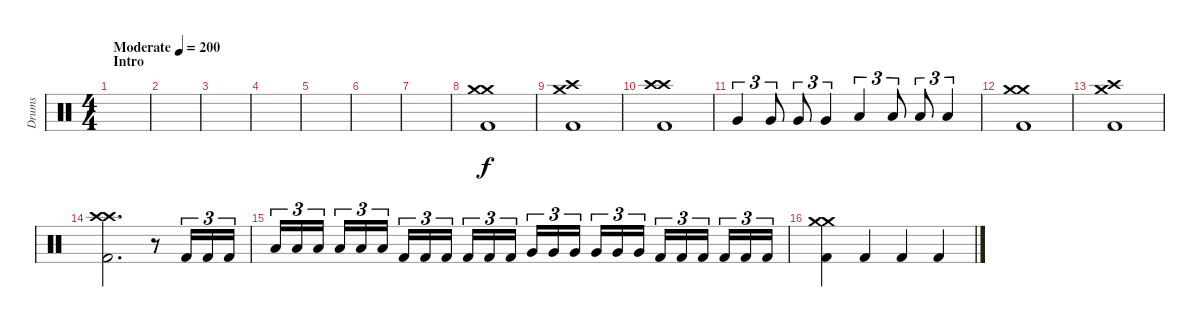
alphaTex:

\track ("Drums" "Drums") {instrument percussion}
\staff {score}
\articulation defaults
\ts (4 4)
\section ("" "Intro")
\tempo (200 "Moderate")
\clef neutral
\ks c
|
|
|
|
|
|
|
("Crash medium (hit)" "Crash medium (hit)" "Kick (hit) 2").1 |
("Crash high (hit)" "Crash medium (hit)" "Kick (hit) 2").1 |
("Crash high (hit)" "Crash high (hit)" "Kick (hit) 2").1 |
"Very Low Tom (hit)".4{tu (3 2)} "Very Low Tom (hit)".8{tu (3 2)} "Very Low Tom (hit)".8{tu (3 2)} "Very Low Tom (hit)".4{tu (3 2)} "Low Floor Tom (hit)".4{tu (3 2)} "Low Floor Tom (hit)".8{tu (3 2)} "Low Floor Tom (hit)".8{tu (3 2)} "Low Floor Tom (hit)".4{tu (3 2)} |
("Crash medium (hit)" "Crash medium (hit)" "Kick (hit) 2").1 |
("Crash high (hit)" "Crash medium (hit)" "Kick (hit) 2").1 |
("Crash high (hit)" "Crash high (hit)" "Kick (hit) 2").2{d} r.8 "Kick (hit) 2".16{tu (3 2)} "Kick (hit) 2".16{tu (3 2)} "Kick (hit) 2".16{tu (3 2)} |
"Low Tom (hit)".16{tu (3 2)} "Low Tom (hit)".16{tu (3 2)} "Low Tom (hit)".16{tu (3 2) beam splitsecondary} "Low Tom (hit)".16{tu (3 2)} "Low Tom (hit)".16{tu (3 2)} "Low Tom (hit)".16{tu (3 2)} "Kick (hit) 2".16{tu (3 2)} "Kick (hit) 2".16{tu (3 2)} "Kick (hit) 2".16{tu (3 2) beam splitsecondary} "Kick (hit) 2".16{tu (3 2)} "Kick (hit) 2".16{tu (3 2)} "Kick (hit) 2".16{tu (3 2)} "Very Low Tom (hit)".16{tu (3 2)} "Very Low Tom (hit)".16{tu (3 2)} "Very Low Tom (hit)".16{tu (3 2) beam splitsecondary} "Very Low Tom (hit)".16{tu (3 2)} "Very Low Tom (hit)".16{tu (3 2)} "Very Low Tom (hit)".16{tu (3 2)} "Kick (hit) 2".16{tu (3 2)} "Kick (hit) 2".16{tu (3 2)} "Kick (hit) 2".16{tu (3 2) beam splitsecondary} "Kick (hit) 2".16{tu (3 2)} "Kick (hit) 2".16{tu (3 2)} "Kick (hit) 2".16{tu (3 2)} |
("Crash medium (hit)" "Crash medium (hit)" "Kick (hit) 2").4 "Kick (hit) 2".4 "Kick (hit) 2".4 "Kick (hit) 2".4
